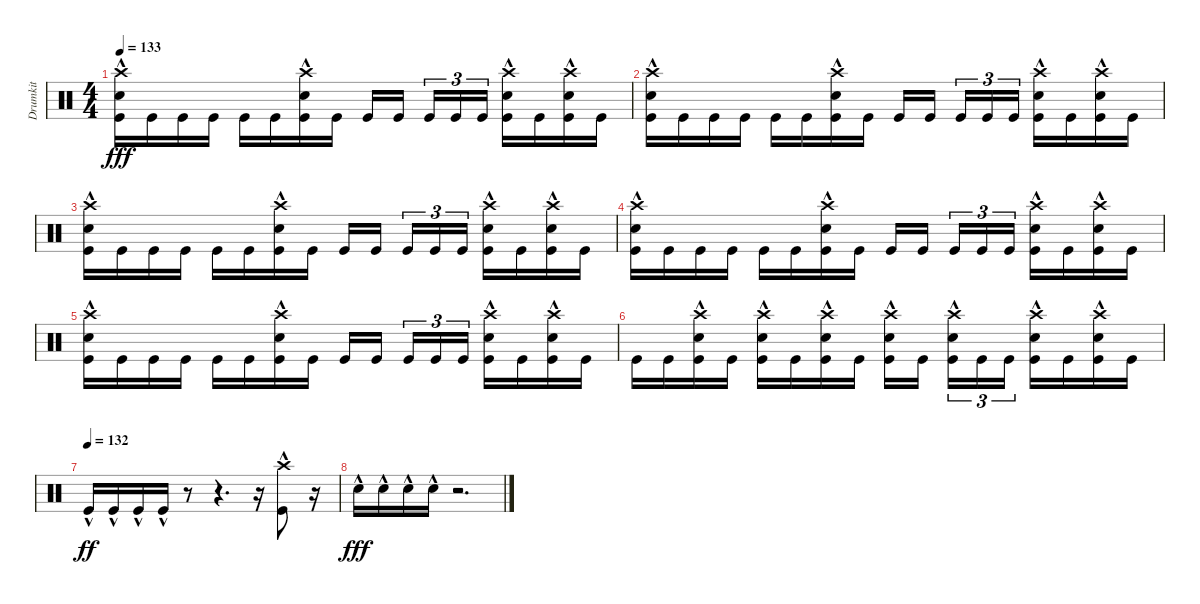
\track ("Drumkit" "Drumkit") {instrument percussion}
\staff {score}
\articulation defaults
\ts (4 4)
\tempo 133
\clef neutral
\ks aminor
("Kick (hit)" "Snare (hit) 2"{hac} "Crash high (hit)"{hac}).16{dy fff} "Kick (hit)".16 "Kick (hit)".16 "Kick (hit)".16 "Kick (hit)".16 "Kick (hit)".16 ("Kick (hit)" "Snare (hit) 2"{hac} "Crash high (hit)").16 "Kick (hit)".16 "Kick (hit)".16 "Kick (hit)".16{beam splitsecondary} "Kick (hit)".16{tu (3 2)} "Kick (hit)".16{tu (3 2)} "Kick (hit)".16{tu (3 2)} ("Kick (hit)" "Snare (hit) 2"{hac} "Crash high (hit)").16 "Kick (hit)".16 ("Kick (hit)" "Snare (hit) 2"{hac} "Crash high (hit)").16 "Kick (hit)".16 |
("Kick (hit)" "Snare (hit) 2"{hac} "Crash high (hit)").16 "Kick (hit)".16 "Kick (hit)".16 "Kick (hit)".16 "Kick (hit)".16 "Kick (hit)".16 ("Kick (hit)" "Snare (hit) 2"{hac} "Crash high (hit)").16 "Kick (hit)".16 "Kick (hit)".16 "Kick (hit)".16{beam splitsecondary} "Kick (hit)".16{tu (3 2)} "Kick (hit)".16{tu (3 2)} "Kick (hit)".16{tu (3 2)} ("Kick (hit)" "Snare (hit) 2"{hac} "Crash high (hit)").16 "Kick (hit)".16 ("Kick (hit)" "Snare (hit) 2"{hac} "Crash high (hit)").16 "Kick (hit)".16 |
("Kick (hit)" "Snare (hit) 2"{hac} "Crash high (hit)"{hac}).16 "Kick (hit)".16 "Kick (hit)".16 "Kick (hit)".16 "Kick (hit)".16 "Kick (hit)".16 ("Kick (hit)" "Snare (hit) 2"{hac} "Crash high (hit)").16 "Kick (hit)".16 "Kick (hit)".16 "Kick (hit)".16{beam splitsecondary} "Kick (hit)".16{tu (3 2)} "Kick (hit)".16{tu (3 2)} "Kick (hit)".16{tu (3 2)} ("Kick (hit)" "Snare (hit) 2"{hac} "Crash high (hit)").16 "Kick (hit)".16 ("Kick (hit)" "Snare (hit) 2"{hac} "Crash high (hit)").16 "Kick (hit)".16 |
("Kick (hit)" "Snare (hit) 2"{hac} "Crash high (hit)").16 "Kick (hit)".16 "Kick (hit)".16 "Kick (hit)".16 "Kick (hit)".16 "Kick (hit)".16 ("Kick (hit)" "Snare (hit) 2"{hac} "Crash high (hit)").16 "Kick (hit)".16 "Kick (hit)".16 "Kick (hit)".16{beam splitsecondary} "Kick (hit)".16{tu (3 2)} "Kick (hit)".16{tu (3 2)} "Kick (hit)".16{tu (3 2)} ("Kick (hit)" "Snare (hit) 2"{hac} "Crash high (hit)").16 "Kick (hit)".16 ("Kick (hit)" "Snare (hit) 2"{hac} "Crash high (hit)"{hac}).16 "Kick (hit)".16 |
("Kick (hit)" "Snare (hit) 2"{hac} "Crash high (hit)"{hac}).16 "Kick (hit)".16 "Kick (hit)".16 "Kick (hit)".16 "Kick (hit)".16 "Kick (hit)".16 ("Kick (hit)" "Snare (hit) 2"{hac} "Crash high (hit)").16 "Kick (hit)".16 "Kick (hit)".16 "Kick (hit)".16{beam splitsecondary} "Kick (hit)".16{tu (3 2)} "Kick (hit)".16{tu (3 2)} "Kick (hit)".16{tu (3 2)} ("Kick (hit)" "Snare (hit) 2"{hac} "Crash high (hit)").16 "Kick (hit)".16 ("Kick (hit)" "Snare (hit) 2"{hac} "Crash high (hit)").16 "Kick (hit)".16 |
"Kick (hit)".16 "Kick (hit)".16 ("Kick (hit)" "Crash high (hit)" "Snare (hit) 2"{hac}).16 "Kick (hit)".16 ("Kick (hit)" "Crash high (hit)" "Snare (hit) 2"{hac}).16 "Kick (hit)".16 ("Kick (hit)" "Crash high (hit)" "Snare (hit) 2"{hac}).16 "Kick (hit)".16 ("Kick (hit)" "Crash high (hit)" "Snare (hit) 2"{hac}).16 "Kick (hit)".16{beam splitsecondary} ("Kick (hit)" "Crash high (hit)" "Snare (hit) 2"{hac}).16{tu (3 2)} "Kick (hit)".16{tu (3 2)} "Kick (hit)".16{tu (3 2)} ("Kick (hit)" "Crash high (hit)" "Snare (hit) 2"{hac}).16 "Kick (hit)".16 ("Kick (hit)" "Crash high (hit)" "Snare (hit) 2"{hac}).16 "Kick (hit)".16 |
\tempo (132)
"Kick (hit)"{hac}.16{dy ff} "Kick (hit)"{hac}.16 "Kick (hit)"{hac}.16 "Kick (hit)"{hac}.16 r.8 r.4{d} r.16 ("Kick (hit)"{hac} "Crash high (hit)"{hac}).8 r.16 |
"Snare (hit) 2"{hac}.16{dy fff} "Snare (hit) 2"{hac}.16 "Snare (hit) 2"{hac}.16 "Snare (hit) 2"{hac}.16 r.2{d}
